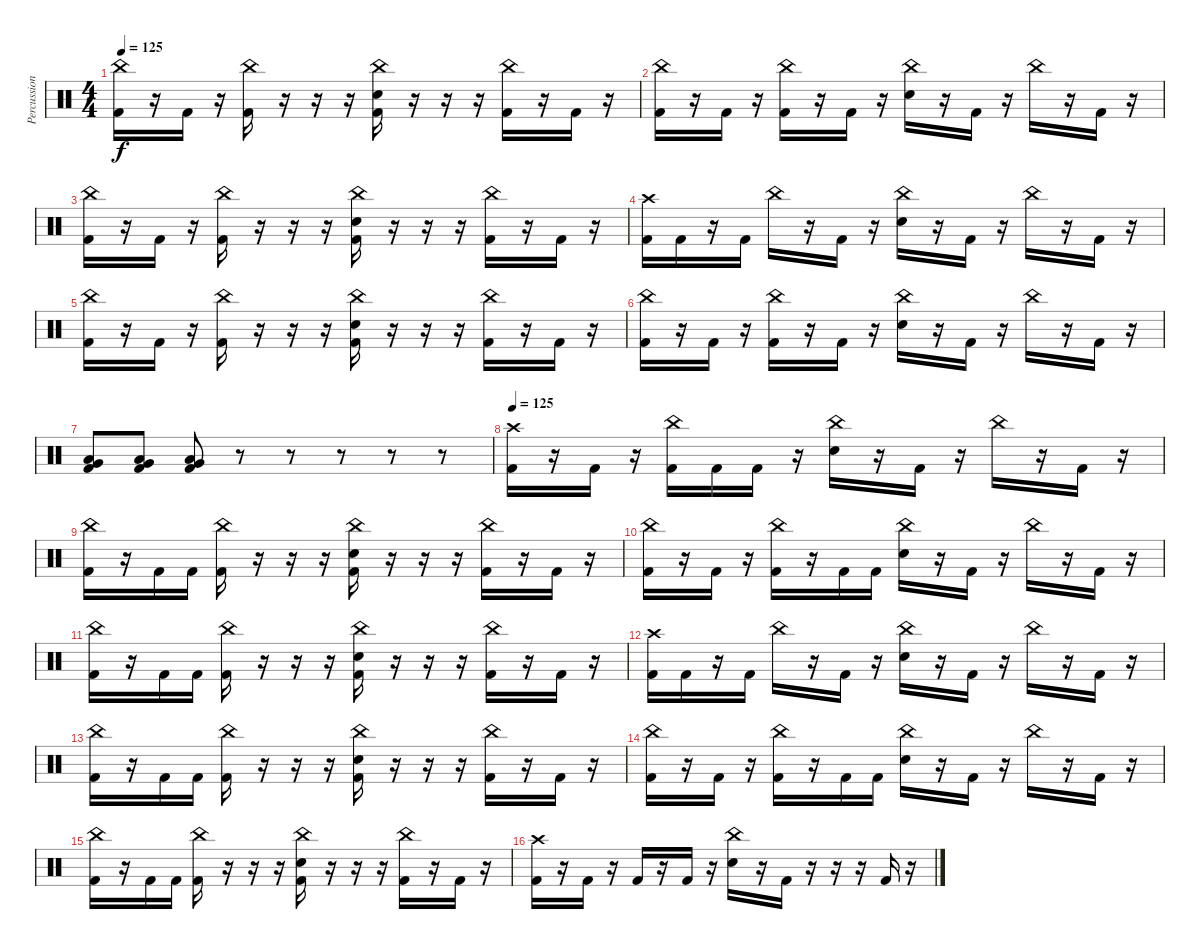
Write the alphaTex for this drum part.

\track ("Percussion" "Percussion") {instrument percussion}
\staff {score}
\articulation defaults
\ts (4 4)
\tempo 125
\clef neutral
\ks c
("China (hit)" "Kick (hit) 2").16{dy f} r.16 "Kick (hit) 2".16 r.16 ("China (hit)" "Kick (hit) 2").16 r.16 r.16 r.16 ("China (hit)" "Electric Snare (hit)" "Kick (hit) 2").16 r.16 r.16 r.16 ("China (hit)" "Kick (hit) 2").16 r.16 "Kick (hit) 2".16 r.16 |
("China (hit)" "Kick (hit) 2").16 r.16 "Kick (hit) 2".16 r.16 ("China (hit)" "Kick (hit) 2").16 r.16 "Kick (hit) 2".16 r.16 ("China (hit)" "Electric Snare (hit)").16 r.16 "Kick (hit) 2".16 r.16 "China (hit)".16 r.16 "Kick (hit) 2".16 r.16 |
("China (hit)" "Kick (hit) 2").16 r.16 "Kick (hit) 2".16 r.16 ("China (hit)" "Kick (hit) 2").16 r.16 r.16 r.16 ("China (hit)" "Electric Snare (hit)" "Kick (hit) 2").16 r.16 r.16 r.16 ("China (hit)" "Kick (hit) 2").16 r.16 "Kick (hit) 2".16 r.16 |
("Crash high (hit)" "Kick (hit) 2").16 "Kick (hit) 2".16 r.16 "Kick (hit) 2".16 "China (hit)".16 r.16 "Kick (hit) 2".16 r.16 ("China (hit)" "Electric Snare (hit)").16 r.16 "Kick (hit) 2".16 r.16 "China (hit)".16 r.16 "Kick (hit) 2".16 r.16 |
("China (hit)" "Kick (hit) 2").16 r.16 "Kick (hit) 2".16 r.16 ("China (hit)" "Kick (hit) 2").16 r.16 r.16 r.16 ("China (hit)" "Electric Snare (hit)" "Kick (hit) 2").16 r.16 r.16 r.16 ("China (hit)" "Kick (hit) 2").16 r.16 "Kick (hit) 2".16 r.16 |
("China (hit)" "Kick (hit) 2").16 r.16 "Kick (hit) 2".16 r.16 ("China (hit)" "Kick (hit) 2").16 r.16 "Kick (hit) 2".16 r.16 ("China (hit)" "Electric Snare (hit)").16 r.16 "Kick (hit) 2".16 r.16 "China (hit)".16 r.16 "Kick (hit) 2".16 r.16 |
("Very Low Tom (hit)" "Low Floor Tom (hit)" "Kick (hit) 2").8 ("Very Low Tom (hit)" "Low Floor Tom (hit)" "Kick (hit) 2").8 ("Very Low Tom (hit)" "Low Floor Tom (hit)" "Kick (hit) 2").8 r.8 r.8 r.8 r.8 r.8 |
\tempo 125
("Crash high (hit)" "Kick (hit) 2").16 r.16 "Kick (hit) 2".16 r.16 ("China (hit)" "Kick (hit) 2").16 "Kick (hit) 2".16 "Kick (hit) 2".16 r.16 ("China (hit)" "Electric Snare (hit)").16 r.16 "Kick (hit) 2".16 r.16 "China (hit)".16 r.16 "Kick (hit) 2".16 r.16 |
("China (hit)" "Kick (hit) 2").16 r.16 "Kick (hit) 2".16 "Kick (hit) 2".16 ("China (hit)" "Kick (hit) 2").16 r.16 r.16 r.16 ("China (hit)" "Electric Snare (hit)" "Kick (hit) 2").16 r.16 r.16 r.16 ("China (hit)" "Kick (hit) 2").16 r.16 "Kick (hit) 2".16 r.16 |
("China (hit)" "Kick (hit) 2").16 r.16 "Kick (hit) 2".16 r.16 ("China (hit)" "Kick (hit) 2").16 r.16 "Kick (hit) 2".16 "Kick (hit) 2".16 ("China (hit)" "Electric Snare (hit)").16 r.16 "Kick (hit) 2".16 r.16 "China (hit)".16 r.16 "Kick (hit) 2".16 r.16 |
("China (hit)" "Kick (hit) 2").16 r.16 "Kick (hit) 2".16 "Kick (hit) 2".16 ("China (hit)" "Kick (hit) 2").16 r.16 r.16 r.16 ("China (hit)" "Electric Snare (hit)" "Kick (hit) 2").16 r.16 r.16 r.16 ("China (hit)" "Kick (hit) 2").16 r.16 "Kick (hit) 2".16 r.16 |
("Crash high (hit)" "Kick (hit) 2").16 "Kick (hit) 2".16 r.16 "Kick (hit) 2".16 "China (hit)".16 r.16 "Kick (hit) 2".16 r.16 ("China (hit)" "Electric Snare (hit)").16 r.16 "Kick (hit) 2".16 r.16 "China (hit)".16 r.16 "Kick (hit) 2".16 r.16 |
("China (hit)" "Kick (hit) 2").16 r.16 "Kick (hit) 2".16 "Kick (hit) 2".16 ("China (hit)" "Kick (hit) 2").16 r.16 r.16 r.16 ("China (hit)" "Electric Snare (hit)" "Kick (hit) 2").16 r.16 r.16 r.16 ("China (hit)" "Kick (hit) 2").16 r.16 "Kick (hit) 2".16 r.16 |
("China (hit)" "Kick (hit) 2").16 r.16 "Kick (hit) 2".16 r.16 ("China (hit)" "Kick (hit) 2").16 r.16 "Kick (hit) 2".16 "Kick (hit) 2".16 ("China (hit)" "Electric Snare (hit)").16 r.16 "Kick (hit) 2".16 r.16 "China (hit)".16 r.16 "Kick (hit) 2".16 r.16 |
("China (hit)" "Kick (hit) 2").16 r.16 "Kick (hit) 2".16 "Kick (hit) 2".16 ("China (hit)" "Kick (hit) 2").16 r.16 r.16 r.16 ("China (hit)" "Electric Snare (hit)" "Kick (hit) 2").16 r.16 r.16 r.16 ("China (hit)" "Kick (hit) 2").16 r.16 "Kick (hit) 2".16 r.16 |
("Crash high (hit)" "Kick (hit) 2").16 r.16 "Kick (hit) 2".16 r.16 "Kick (hit) 2".16 r.16 "Kick (hit) 2".16 r.16 ("China (hit)" "Electric Snare (hit)").16 r.16 "Kick (hit) 2".16 r.16 r.16 r.16 "Kick (hit) 2".16 r.16
